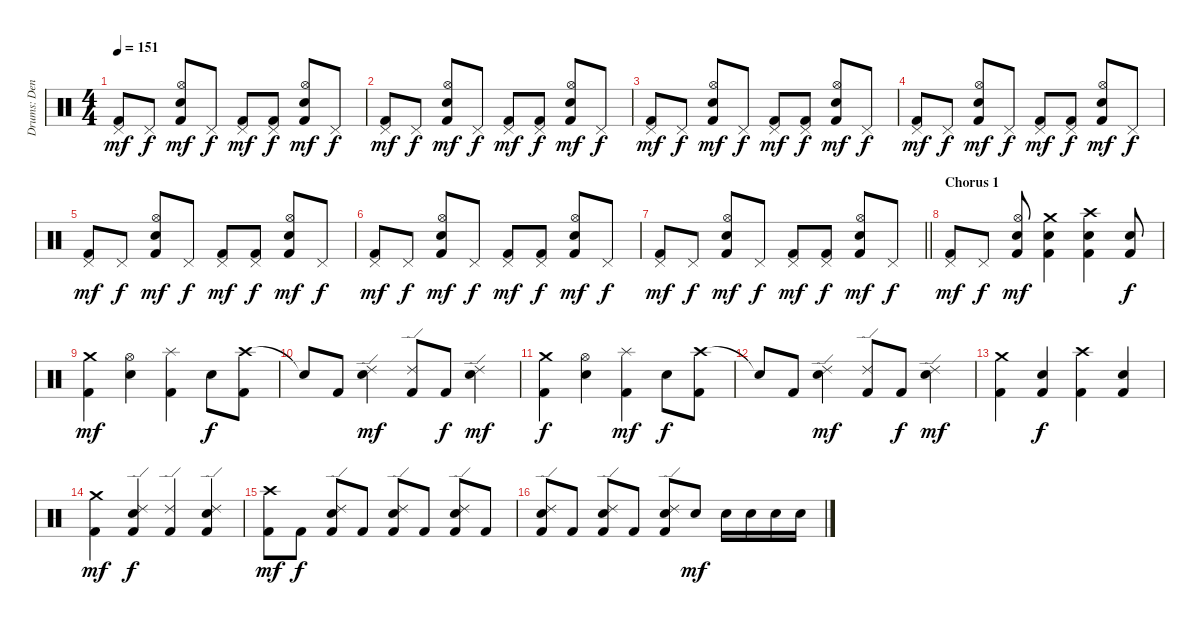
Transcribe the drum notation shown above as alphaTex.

\track ("Drums: Denny Carmassi" "Drums: Den") {instrument percussion}
\staff {score}
\articulation defaults
\ts (4 4)
\tempo 151
\clef neutral
\ks c
("Pedal Hi-Hat (hit)" "Kick (hit) 2").8{dy mf} "Pedal Hi-Hat (hit)".8{dy f} ("Hi-Hat (open)" "Snare (hit) 2" "Kick (hit) 2").8{dy mf} "Pedal Hi-Hat (hit)".8{dy f} ("Pedal Hi-Hat (hit)" "Kick (hit) 2").8{dy mf} ("Pedal Hi-Hat (hit)" "Kick (hit) 2").8{dy f} ("Hi-Hat (open)" "Snare (hit) 2" "Kick (hit) 2").8{dy mf} "Pedal Hi-Hat (hit)".8{dy f} |
("Pedal Hi-Hat (hit)" "Kick (hit) 2").8{dy mf} "Pedal Hi-Hat (hit)".8{dy f} ("Hi-Hat (open)" "Snare (hit) 2" "Kick (hit) 2").8{dy mf} "Pedal Hi-Hat (hit)".8{dy f} ("Pedal Hi-Hat (hit)" "Kick (hit) 2").8{dy mf} ("Pedal Hi-Hat (hit)" "Kick (hit) 2").8{dy f} ("Hi-Hat (open)" "Snare (hit) 2" "Kick (hit) 2").8{dy mf} "Pedal Hi-Hat (hit)".8{dy f} |
("Pedal Hi-Hat (hit)" "Kick (hit) 2").8{dy mf} "Pedal Hi-Hat (hit)".8{dy f} ("Hi-Hat (open)" "Snare (hit) 2" "Kick (hit) 2").8{dy mf} "Pedal Hi-Hat (hit)".8{dy f} ("Pedal Hi-Hat (hit)" "Kick (hit) 2").8{dy mf} ("Pedal Hi-Hat (hit)" "Kick (hit) 2").8{dy f} ("Hi-Hat (open)" "Snare (hit) 2" "Kick (hit) 2").8{dy mf} "Pedal Hi-Hat (hit)".8{dy f} |
("Pedal Hi-Hat (hit)" "Kick (hit) 2").8{dy mf} "Pedal Hi-Hat (hit)".8{dy f} ("Hi-Hat (open)" "Snare (hit) 2" "Kick (hit) 2").8{dy mf} "Pedal Hi-Hat (hit)".8{dy f} ("Pedal Hi-Hat (hit)" "Kick (hit) 2").8{dy mf} ("Pedal Hi-Hat (hit)" "Kick (hit) 2").8{dy f} ("Hi-Hat (open)" "Snare (hit) 2" "Kick (hit) 2").8{dy mf} "Pedal Hi-Hat (hit)".8{dy f} |
("Pedal Hi-Hat (hit)" "Kick (hit) 2").8{dy mf} "Pedal Hi-Hat (hit)".8{dy f} ("Hi-Hat (open)" "Snare (hit) 2" "Kick (hit) 2").8{dy mf} "Pedal Hi-Hat (hit)".8{dy f} ("Pedal Hi-Hat (hit)" "Kick (hit) 2").8{dy mf} ("Pedal Hi-Hat (hit)" "Kick (hit) 2").8{dy f} ("Hi-Hat (open)" "Snare (hit) 2" "Kick (hit) 2").8{dy mf} "Pedal Hi-Hat (hit)".8{dy f} |
("Pedal Hi-Hat (hit)" "Kick (hit) 2").8{dy mf} "Pedal Hi-Hat (hit)".8{dy f} ("Hi-Hat (open)" "Snare (hit) 2" "Kick (hit) 2").8{dy mf} "Pedal Hi-Hat (hit)".8{dy f} ("Pedal Hi-Hat (hit)" "Kick (hit) 2").8{dy mf} ("Pedal Hi-Hat (hit)" "Kick (hit) 2").8{dy f} ("Hi-Hat (open)" "Snare (hit) 2" "Kick (hit) 2").8{dy mf} "Pedal Hi-Hat (hit)".8{dy f} |
\barLineRight lightlight
("Pedal Hi-Hat (hit)" "Kick (hit) 2").8{dy mf} "Pedal Hi-Hat (hit)".8{dy f} ("Hi-Hat (open)" "Snare (hit) 2" "Kick (hit) 2").8{dy mf} "Pedal Hi-Hat (hit)".8{dy f} ("Pedal Hi-Hat (hit)" "Kick (hit) 2").8{dy mf} ("Pedal Hi-Hat (hit)" "Kick (hit) 2").8{dy f} ("Hi-Hat (open)" "Snare (hit) 2" "Kick (hit) 2").8{dy mf} "Pedal Hi-Hat (hit)".8{dy f} |
\section ("" "Chorus 1")
("Pedal Hi-Hat (hit)" "Kick (hit) 2").8{dy mf} "Pedal Hi-Hat (hit)".8{dy f} ("Hi-Hat (open)" "Snare (hit) 2" "Kick (hit) 2").8{dy mf} ("Crash medium (hit)" "Snare (hit) 2" "Kick (hit) 2").4 ("Crash high (hit)" "Snare (hit) 2" "Kick (hit) 2").4 ("Snare (hit) 2" "Kick (hit) 2").8{dy f} |
("Crash medium (hit)" "Kick (hit) 2").4{dy mf} ("Hi-Hat (open)" "Snare (hit) 2").4 ("Splash (hit)" "Kick (hit) 2").4 "Snare (hit) 2".8{dy f} ("Crash high (hit)" "Kick (hit) 2").8 |
"Snare (hit)"{t}.8 "Kick (hit) 2".8 ("Ride (edge) 2" "Snare (hit) 2").4{dy mf} ("Ride (edge) 2" "Kick (hit) 2").8 "Kick (hit) 2".8{dy f} ("Ride (edge) 2" "Snare (hit) 2").4{dy mf} |
("Crash medium (hit)" "Kick (hit) 2").4{dy f} ("Hi-Hat (open)" "Snare (hit) 2").4 ("Splash (hit)" "Kick (hit) 2").4{dy mf} "Snare (hit) 2".8{dy f} ("Crash high (hit)" "Kick (hit) 2").8 |
"Snare (hit)"{t}.8 "Kick (hit) 2".8 ("Ride (edge) 2" "Snare (hit) 2").4{dy mf} ("Ride (edge) 2" "Kick (hit) 2").8 "Kick (hit) 2".8{dy f} ("Ride (edge) 2" "Snare (hit) 2").4{dy mf} |
("Crash medium (hit)" "Kick (hit) 2").4 ("Snare (hit) 2" "Kick (hit) 2").4{dy f} ("Crash high (hit)" "Kick (hit) 2").4 ("Snare (hit) 2" "Kick (hit) 2").4 |
("Crash medium (hit)" "Kick (hit) 2").4{dy mf} ("Ride (edge) 2" "Snare (hit) 2" "Kick (hit) 2").4{dy f} ("Ride (edge) 2" "Kick (hit) 2").4 ("Ride (edge) 2" "Snare (hit) 2" "Kick (hit) 2").4 |
("Crash high (hit)" "Kick (hit) 2").8{dy mf} "Kick (hit) 2".8{dy f} ("Ride (edge) 2" "Snare (hit) 2" "Kick (hit) 2").8 "Kick (hit) 2".8 ("Ride (edge) 2" "Snare (hit) 2" "Kick (hit) 2").8 "Kick (hit) 2".8 ("Ride (edge) 2" "Snare (hit) 2" "Kick (hit) 2").8 "Kick (hit) 2".8 |
("Ride (edge) 2" "Snare (hit) 2" "Kick (hit) 2").8 "Kick (hit) 2".8 ("Ride (edge) 2" "Snare (hit) 2" "Kick (hit) 2").8 "Kick (hit) 2".8 ("Ride (edge) 2" "Snare (hit) 2" "Kick (hit) 2").8 "Snare (hit) 2".8{dy mf} "Snare (hit) 2".16 "Snare (hit) 2".16 "Snare (hit) 2".16 "Snare (hit) 2".16
